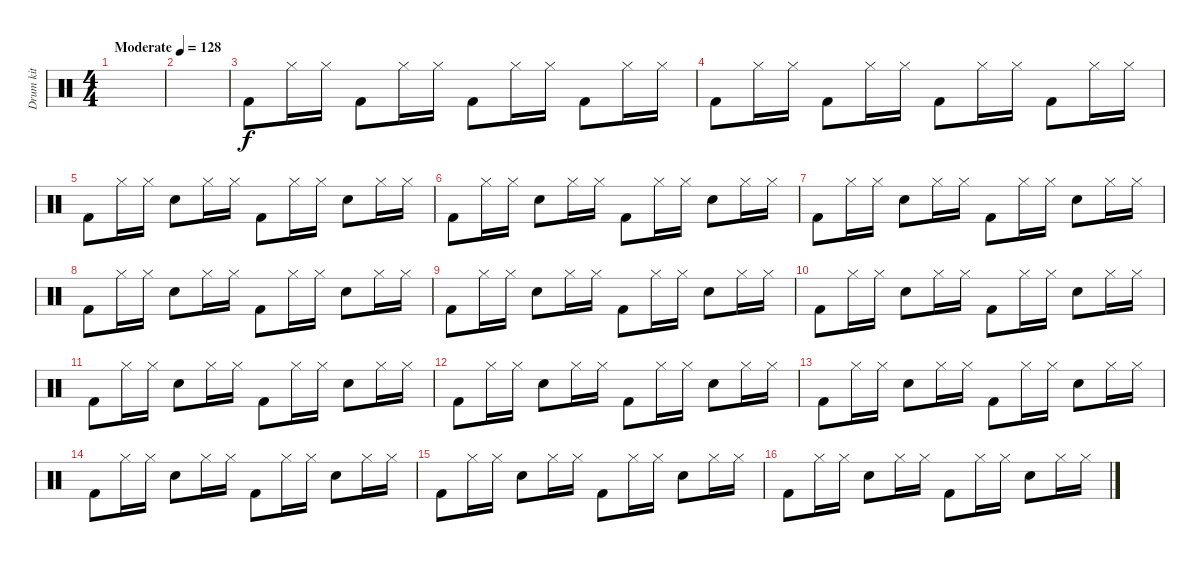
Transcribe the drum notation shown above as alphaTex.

\track ("Drum kit" "Drum kit") {instrument percussion}
\staff {score}
\articulation defaults
\ts (4 4)
\tempo (128 "Moderate")
\clef neutral
\ks c
|
|
"Kick (hit) 2".8 "Hi-Hat (closed)".16 "Hi-Hat (closed)".16 "Kick (hit) 2".8 "Hi-Hat (closed)".16 "Hi-Hat (closed)".16 "Kick (hit) 2".8 "Hi-Hat (closed)".16 "Hi-Hat (closed)".16 "Kick (hit) 2".8 "Hi-Hat (closed)".16 "Hi-Hat (closed)".16 |
"Kick (hit) 2".8 "Hi-Hat (closed)".16 "Hi-Hat (closed)".16 "Kick (hit) 2".8 "Hi-Hat (closed)".16 "Hi-Hat (closed)".16 "Kick (hit) 2".8 "Hi-Hat (closed)".16 "Hi-Hat (closed)".16 "Kick (hit) 2".8 "Hi-Hat (closed)".16 "Hi-Hat (closed)".16 |
"Kick (hit) 2".8 "Hi-Hat (closed)".16 "Hi-Hat (closed)".16 "Snare (hit) 2".8 "Hi-Hat (closed)".16 "Hi-Hat (closed)".16 "Kick (hit) 2".8 "Hi-Hat (closed)".16 "Hi-Hat (closed)".16 "Snare (hit) 2".8 "Hi-Hat (closed)".16 "Hi-Hat (closed)".16 |
"Kick (hit) 2".8 "Hi-Hat (closed)".16 "Hi-Hat (closed)".16 "Snare (hit) 2".8 "Hi-Hat (closed)".16 "Hi-Hat (closed)".16 "Kick (hit) 2".8 "Hi-Hat (closed)".16 "Hi-Hat (closed)".16 "Snare (hit) 2".8 "Hi-Hat (closed)".16 "Hi-Hat (closed)".16 |
"Kick (hit) 2".8 "Hi-Hat (closed)".16 "Hi-Hat (closed)".16 "Snare (hit) 2".8 "Hi-Hat (closed)".16 "Hi-Hat (closed)".16 "Kick (hit) 2".8 "Hi-Hat (closed)".16 "Hi-Hat (closed)".16 "Snare (hit) 2".8 "Hi-Hat (closed)".16 "Hi-Hat (closed)".16 |
"Kick (hit) 2".8 "Hi-Hat (closed)".16 "Hi-Hat (closed)".16 "Snare (hit) 2".8 "Hi-Hat (closed)".16 "Hi-Hat (closed)".16 "Kick (hit) 2".8 "Hi-Hat (closed)".16 "Hi-Hat (closed)".16 "Snare (hit) 2".8 "Hi-Hat (closed)".16 "Hi-Hat (closed)".16 |
"Kick (hit) 2".8 "Hi-Hat (closed)".16 "Hi-Hat (closed)".16 "Snare (hit) 2".8 "Hi-Hat (closed)".16 "Hi-Hat (closed)".16 "Kick (hit) 2".8 "Hi-Hat (closed)".16 "Hi-Hat (closed)".16 "Snare (hit) 2".8 "Hi-Hat (closed)".16 "Hi-Hat (closed)".16 |
"Kick (hit) 2".8 "Hi-Hat (closed)".16 "Hi-Hat (closed)".16 "Snare (hit) 2".8 "Hi-Hat (closed)".16 "Hi-Hat (closed)".16 "Kick (hit) 2".8 "Hi-Hat (closed)".16 "Hi-Hat (closed)".16 "Snare (hit) 2".8 "Hi-Hat (closed)".16 "Hi-Hat (closed)".16 |
"Kick (hit) 2".8 "Hi-Hat (closed)".16 "Hi-Hat (closed)".16 "Snare (hit) 2".8 "Hi-Hat (closed)".16 "Hi-Hat (closed)".16 "Kick (hit) 2".8 "Hi-Hat (closed)".16 "Hi-Hat (closed)".16 "Snare (hit) 2".8 "Hi-Hat (closed)".16 "Hi-Hat (closed)".16 |
"Kick (hit) 2".8 "Hi-Hat (closed)".16 "Hi-Hat (closed)".16 "Snare (hit) 2".8 "Hi-Hat (closed)".16 "Hi-Hat (closed)".16 "Kick (hit) 2".8 "Hi-Hat (closed)".16 "Hi-Hat (closed)".16 "Snare (hit) 2".8 "Hi-Hat (closed)".16 "Hi-Hat (closed)".16 |
"Kick (hit) 2".8 "Hi-Hat (closed)".16 "Hi-Hat (closed)".16 "Snare (hit) 2".8 "Hi-Hat (closed)".16 "Hi-Hat (closed)".16 "Kick (hit) 2".8 "Hi-Hat (closed)".16 "Hi-Hat (closed)".16 "Snare (hit) 2".8 "Hi-Hat (closed)".16 "Hi-Hat (closed)".16 |
"Kick (hit) 2".8 "Hi-Hat (closed)".16 "Hi-Hat (closed)".16 "Snare (hit) 2".8 "Hi-Hat (closed)".16 "Hi-Hat (closed)".16 "Kick (hit) 2".8 "Hi-Hat (closed)".16 "Hi-Hat (closed)".16 "Snare (hit) 2".8 "Hi-Hat (closed)".16 "Hi-Hat (closed)".16 |
"Kick (hit) 2".8 "Hi-Hat (closed)".16 "Hi-Hat (closed)".16 "Snare (hit) 2".8 "Hi-Hat (closed)".16 "Hi-Hat (closed)".16 "Kick (hit) 2".8 "Hi-Hat (closed)".16 "Hi-Hat (closed)".16 "Snare (hit) 2".8 "Hi-Hat (closed)".16 "Hi-Hat (closed)".16 |
"Kick (hit) 2".8 "Hi-Hat (closed)".16 "Hi-Hat (closed)".16 "Snare (hit) 2".8 "Hi-Hat (closed)".16 "Hi-Hat (closed)".16 "Kick (hit) 2".8 "Hi-Hat (closed)".16 "Hi-Hat (closed)".16 "Snare (hit) 2".8 "Hi-Hat (closed)".16 "Hi-Hat (closed)".16
